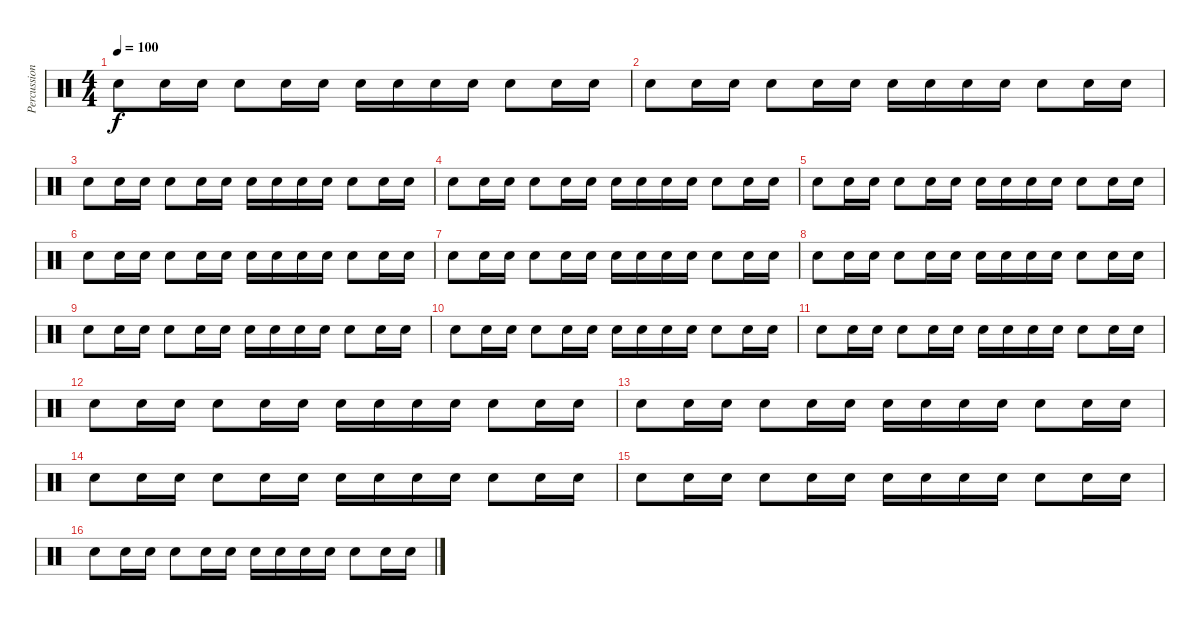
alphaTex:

\track ("Percussions" "Percussion") {instrument percussion}
\staff {score}
\articulation defaults
\ts (4 4)
\tempo 100
\clef neutral
\ks c "Snare (hit) 2".8{dy f} "Snare (hit) 2".16 "Snare (hit) 2".16 "Snare (hit) 2".8 "Snare (hit) 2".16 "Snare (hit) 2".16 "Snare (hit) 2".16 "Snare (hit) 2".16 "Snare (hit) 2".16 "Snare (hit) 2".16 "Snare (hit) 2".8 "Snare (hit) 2".16 "Snare (hit) 2".16
|
"Snare (hit) 2".8 "Snare (hit) 2".16 "Snare (hit) 2".16 "Snare (hit) 2".8 "Snare (hit) 2".16 "Snare (hit) 2".16 "Snare (hit) 2".16 "Snare (hit) 2".16 "Snare (hit) 2".16 "Snare (hit) 2".16 "Snare (hit) 2".8 "Snare (hit) 2".16 "Snare (hit) 2".16 |
"Snare (hit) 2".8 "Snare (hit) 2".16 "Snare (hit) 2".16 "Snare (hit) 2".8 "Snare (hit) 2".16 "Snare (hit) 2".16 "Snare (hit) 2".16 "Snare (hit) 2".16 "Snare (hit) 2".16 "Snare (hit) 2".16 "Snare (hit) 2".8 "Snare (hit) 2".16 "Snare (hit) 2".16 |
"Snare (hit) 2".8 "Snare (hit) 2".16 "Snare (hit) 2".16 "Snare (hit) 2".8 "Snare (hit) 2".16 "Snare (hit) 2".16 "Snare (hit) 2".16 "Snare (hit) 2".16 "Snare (hit) 2".16 "Snare (hit) 2".16 "Snare (hit) 2".8 "Snare (hit) 2".16 "Snare (hit) 2".16 |
"Snare (hit) 2".8 "Snare (hit) 2".16 "Snare (hit) 2".16 "Snare (hit) 2".8 "Snare (hit) 2".16 "Snare (hit) 2".16 "Snare (hit) 2".16 "Snare (hit) 2".16 "Snare (hit) 2".16 "Snare (hit) 2".16 "Snare (hit) 2".8 "Snare (hit) 2".16 "Snare (hit) 2".16 |
"Snare (hit) 2".8 "Snare (hit) 2".16 "Snare (hit) 2".16 "Snare (hit) 2".8 "Snare (hit) 2".16 "Snare (hit) 2".16 "Snare (hit) 2".16 "Snare (hit) 2".16 "Snare (hit) 2".16 "Snare (hit) 2".16 "Snare (hit) 2".8 "Snare (hit) 2".16 "Snare (hit) 2".16 |
"Snare (hit) 2".8 "Snare (hit) 2".16 "Snare (hit) 2".16 "Snare (hit) 2".8 "Snare (hit) 2".16 "Snare (hit) 2".16 "Snare (hit) 2".16 "Snare (hit) 2".16 "Snare (hit) 2".16 "Snare (hit) 2".16 "Snare (hit) 2".8 "Snare (hit) 2".16 "Snare (hit) 2".16 |
"Snare (hit) 2".8 "Snare (hit) 2".16 "Snare (hit) 2".16 "Snare (hit) 2".8 "Snare (hit) 2".16 "Snare (hit) 2".16 "Snare (hit) 2".16 "Snare (hit) 2".16 "Snare (hit) 2".16 "Snare (hit) 2".16 "Snare (hit) 2".8 "Snare (hit) 2".16 "Snare (hit) 2".16 |
"Snare (hit) 2".8 "Snare (hit) 2".16 "Snare (hit) 2".16 "Snare (hit) 2".8 "Snare (hit) 2".16 "Snare (hit) 2".16 "Snare (hit) 2".16 "Snare (hit) 2".16 "Snare (hit) 2".16 "Snare (hit) 2".16 "Snare (hit) 2".8 "Snare (hit) 2".16 "Snare (hit) 2".16 |
"Snare (hit) 2".8 "Snare (hit) 2".16 "Snare (hit) 2".16 "Snare (hit) 2".8 "Snare (hit) 2".16 "Snare (hit) 2".16 "Snare (hit) 2".16 "Snare (hit) 2".16 "Snare (hit) 2".16 "Snare (hit) 2".16 "Snare (hit) 2".8 "Snare (hit) 2".16 "Snare (hit) 2".16 |
"Snare (hit) 2".8 "Snare (hit) 2".16 "Snare (hit) 2".16 "Snare (hit) 2".8 "Snare (hit) 2".16 "Snare (hit) 2".16 "Snare (hit) 2".16 "Snare (hit) 2".16 "Snare (hit) 2".16 "Snare (hit) 2".16 "Snare (hit) 2".8 "Snare (hit) 2".16 "Snare (hit) 2".16 |
"Snare (hit) 2".8 "Snare (hit) 2".16 "Snare (hit) 2".16 "Snare (hit) 2".8 "Snare (hit) 2".16 "Snare (hit) 2".16 "Snare (hit) 2".16 "Snare (hit) 2".16 "Snare (hit) 2".16 "Snare (hit) 2".16 "Snare (hit) 2".8 "Snare (hit) 2".16 "Snare (hit) 2".16 |
"Snare (hit) 2".8 "Snare (hit) 2".16 "Snare (hit) 2".16 "Snare (hit) 2".8 "Snare (hit) 2".16 "Snare (hit) 2".16 "Snare (hit) 2".16 "Snare (hit) 2".16 "Snare (hit) 2".16 "Snare (hit) 2".16 "Snare (hit) 2".8 "Snare (hit) 2".16 "Snare (hit) 2".16 |
"Snare (hit) 2".8 "Snare (hit) 2".16 "Snare (hit) 2".16 "Snare (hit) 2".8 "Snare (hit) 2".16 "Snare (hit) 2".16 "Snare (hit) 2".16 "Snare (hit) 2".16 "Snare (hit) 2".16 "Snare (hit) 2".16 "Snare (hit) 2".8 "Snare (hit) 2".16 "Snare (hit) 2".16 |
"Snare (hit) 2".8 "Snare (hit) 2".16 "Snare (hit) 2".16 "Snare (hit) 2".8 "Snare (hit) 2".16 "Snare (hit) 2".16 "Snare (hit) 2".16 "Snare (hit) 2".16 "Snare (hit) 2".16 "Snare (hit) 2".16 "Snare (hit) 2".8 "Snare (hit) 2".16 "Snare (hit) 2".16 |
"Snare (hit) 2".8 "Snare (hit) 2".16 "Snare (hit) 2".16 "Snare (hit) 2".8 "Snare (hit) 2".16 "Snare (hit) 2".16 "Snare (hit) 2".16 "Snare (hit) 2".16 "Snare (hit) 2".16 "Snare (hit) 2".16 "Snare (hit) 2".8 "Snare (hit) 2".16 "Snare (hit) 2".16
